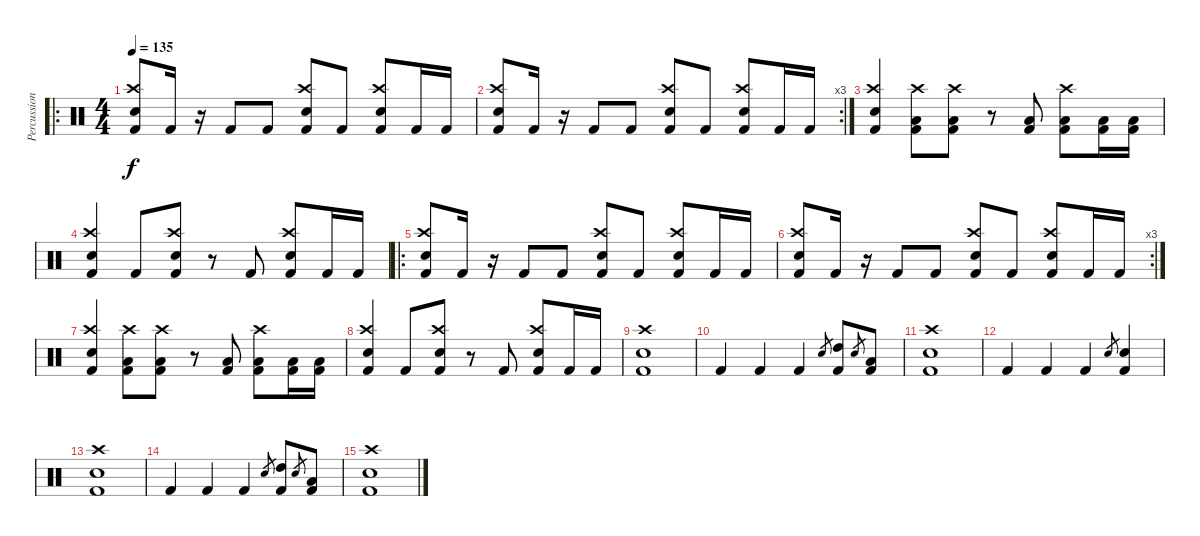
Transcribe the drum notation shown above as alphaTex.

\track ("Percussions" "Percussion") {instrument percussion}
\staff {score}
\articulation defaults
\ro
\ts (4 4)
\tempo 135
\clef neutral
\ks c
("Electric Snare (hit)" "Crash high (hit)" "Kick (hit) 2").8{dy f} "Kick (hit) 2".16 r.16 "Kick (hit) 2".8 "Kick (hit) 2".8 ("Crash high (hit)" "Electric Snare (hit)" "Kick (hit) 2").8 "Kick (hit) 2".8 ("Crash high (hit)" "Electric Snare (hit)" "Kick (hit) 2").8 "Kick (hit) 2".16 "Kick (hit) 2".16 |
\rc 3
("Electric Snare (hit)" "Crash high (hit)" "Kick (hit) 2").8 "Kick (hit) 2".16 r.16 "Kick (hit) 2".8 "Kick (hit) 2".8 ("Crash high (hit)" "Electric Snare (hit)" "Kick (hit) 2").8 "Kick (hit) 2".8 ("Crash high (hit)" "Electric Snare (hit)" "Kick (hit) 2").8 "Kick (hit) 2".16 "Kick (hit) 2".16 |
("Crash high (hit)" "Kick (hit) 2" "Electric Snare (hit)").4 ("Crash high (hit)" "Kick (hit) 2" "Low Tom (hit)").8 ("Crash high (hit)" "Kick (hit) 2" "Low Tom (hit)").8 r.8 ("Kick (hit) 2" "Low Tom (hit)").8 ("Crash high (hit)" "Kick (hit) 2" "Low Tom (hit)").8 ("Kick (hit) 2" "Low Tom (hit)").16 ("Kick (hit) 2" "Low Tom (hit)").16 |
("Crash high (hit)" "Kick (hit) 2" "Electric Snare (hit)").4 "Kick (hit) 2".8 ("Crash high (hit)" "Electric Snare (hit)" "Kick (hit) 2").8 r.8 "Kick (hit) 2".8 ("Electric Snare (hit)" "Crash high (hit)" "Kick (hit) 2").8 "Kick (hit) 2".16 "Kick (hit) 2".16 |
\ro
("Electric Snare (hit)" "Crash high (hit)" "Kick (hit) 2").8 "Kick (hit) 2".16 r.16 "Kick (hit) 2".8 "Kick (hit) 2".8 ("Crash high (hit)" "Electric Snare (hit)" "Kick (hit) 2").8 "Kick (hit) 2".8 ("Crash high (hit)" "Electric Snare (hit)" "Kick (hit) 2").8 "Kick (hit) 2".16 "Kick (hit) 2".16 |
\rc 3
("Electric Snare (hit)" "Crash high (hit)" "Kick (hit) 2").8 "Kick (hit) 2".16 r.16 "Kick (hit) 2".8 "Kick (hit) 2".8 ("Crash high (hit)" "Electric Snare (hit)" "Kick (hit) 2").8 "Kick (hit) 2".8 ("Crash high (hit)" "Electric Snare (hit)" "Kick (hit) 2").8 "Kick (hit) 2".16 "Kick (hit) 2".16 |
("Crash high (hit)" "Kick (hit) 2" "Electric Snare (hit)").4 ("Crash high (hit)" "Kick (hit) 2" "Low Tom (hit)").8 ("Crash high (hit)" "Kick (hit) 2" "Low Tom (hit)").8 r.8 ("Kick (hit) 2" "Low Tom (hit)").8 ("Crash high (hit)" "Kick (hit) 2" "Low Tom (hit)").8 ("Kick (hit) 2" "Low Tom (hit)").16 ("Kick (hit) 2" "Low Tom (hit)").16 |
("Crash high (hit)" "Kick (hit) 2" "Electric Snare (hit)").4 "Kick (hit) 2".8 ("Crash high (hit)" "Electric Snare (hit)" "Kick (hit) 2").8 r.8 "Kick (hit) 2".8 ("Electric Snare (hit)" "Crash high (hit)" "Kick (hit) 2").8 "Kick (hit) 2".16 "Kick (hit) 2".16 |
("Crash high (hit)" "Kick (hit) 2" "Electric Snare (hit)").1 |
"Kick (hit) 2".4 "Kick (hit) 2".4 "Kick (hit) 2".4 "Electric Snare (hit)".8{gr} ("High Tom (hit)" "Kick (hit) 2").8 "Electric Snare (hit)".8{gr} ("Low Tom (hit)" "Kick (hit) 2").8 |
("Crash high (hit)" "Electric Snare (hit)" "Kick (hit) 2").1 |
"Kick (hit) 2".4 "Kick (hit) 2".4 "Kick (hit) 2".4 "Electric Snare (hit)".8{gr} ("Kick (hit) 2" "Electric Snare (hit)").4 |
("Crash high (hit)" "Kick (hit) 2" "Electric Snare (hit)").1 |
"Kick (hit) 2".4 "Kick (hit) 2".4 "Kick (hit) 2".4 "Electric Snare (hit)".8{gr} ("High Tom (hit)" "Kick (hit) 2").8 "Electric Snare (hit)".8{gr} ("Low Tom (hit)" "Kick (hit) 2").8 |
("Crash high (hit)" "Electric Snare (hit)" "Kick (hit) 2").1
